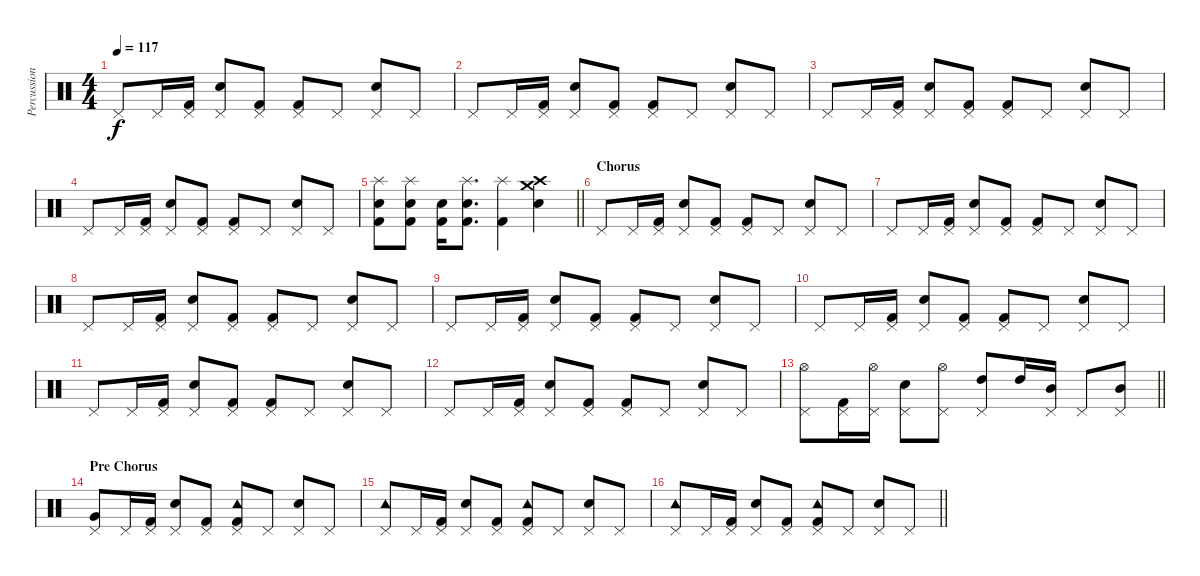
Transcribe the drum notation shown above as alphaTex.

\track ("Percussion" "Percussion") {instrument percussion}
\staff {score}
\articulation defaults
\ts (4 4)
\tempo 117
\clef neutral
\ks c "Pedal Hi-Hat (hit)".8{dy f} "Pedal Hi-Hat (hit)".16
("Pedal Hi-Hat (hit)" "Kick (hit) 2").16 ("Pedal Hi-Hat (hit)" "Electric Snare (hit)").8 ("Pedal Hi-Hat (hit)" "Kick (hit) 2").8 ("Pedal Hi-Hat (hit)" "Kick (hit) 2").8 "Pedal Hi-Hat (hit)".8 ("Pedal Hi-Hat (hit)" "Electric Snare (hit)").8 "Pedal Hi-Hat (hit)".8 |
"Pedal Hi-Hat (hit)".8 "Pedal Hi-Hat (hit)".16 ("Pedal Hi-Hat (hit)" "Kick (hit) 2").16 ("Pedal Hi-Hat (hit)" "Electric Snare (hit)").8 ("Pedal Hi-Hat (hit)" "Kick (hit) 2").8 ("Pedal Hi-Hat (hit)" "Kick (hit) 2").8 "Pedal Hi-Hat (hit)".8 ("Pedal Hi-Hat (hit)" "Electric Snare (hit)").8 "Pedal Hi-Hat (hit)".8 |
"Pedal Hi-Hat (hit)".8 "Pedal Hi-Hat (hit)".16 ("Pedal Hi-Hat (hit)" "Kick (hit) 2").16 ("Pedal Hi-Hat (hit)" "Electric Snare (hit)").8 ("Pedal Hi-Hat (hit)" "Kick (hit) 2").8 ("Pedal Hi-Hat (hit)" "Kick (hit) 2").8 "Pedal Hi-Hat (hit)".8 ("Pedal Hi-Hat (hit)" "Electric Snare (hit)").8 "Pedal Hi-Hat (hit)".8 |
"Pedal Hi-Hat (hit)".8 "Pedal Hi-Hat (hit)".16 ("Pedal Hi-Hat (hit)" "Kick (hit) 2").16 ("Pedal Hi-Hat (hit)" "Electric Snare (hit)").8 ("Pedal Hi-Hat (hit)" "Kick (hit) 2").8 ("Pedal Hi-Hat (hit)" "Kick (hit) 2").8 "Pedal Hi-Hat (hit)".8 ("Pedal Hi-Hat (hit)" "Electric Snare (hit)").8 "Pedal Hi-Hat (hit)".8 |
\barLineRight lightlight
("Splash (hit)" "Kick (hit) 2" "Electric Snare (hit)").8 ("Splash (hit)" "Kick (hit) 2" "Electric Snare (hit)").8 ("Kick (hit) 2" "Electric Snare (hit)").16 ("Splash (hit)" "Kick (hit) 2" "Electric Snare (hit)").8{d} ("Splash (hit)" "Kick (hit) 2").4 ("Crash high (hit)" "Electric Snare (hit)" "Crash medium (hit)").4 |
\section ("" "Chorus")
"Pedal Hi-Hat (hit)".8 "Pedal Hi-Hat (hit)".16 ("Pedal Hi-Hat (hit)" "Kick (hit) 2").16 ("Pedal Hi-Hat (hit)" "Electric Snare (hit)").8 ("Pedal Hi-Hat (hit)" "Kick (hit) 2").8 ("Pedal Hi-Hat (hit)" "Kick (hit) 2").8 "Pedal Hi-Hat (hit)".8 ("Pedal Hi-Hat (hit)" "Electric Snare (hit)").8 "Pedal Hi-Hat (hit)".8 |
"Pedal Hi-Hat (hit)".8 "Pedal Hi-Hat (hit)".16 ("Pedal Hi-Hat (hit)" "Kick (hit) 2").16 ("Pedal Hi-Hat (hit)" "Electric Snare (hit)").8 ("Pedal Hi-Hat (hit)" "Kick (hit) 2").8 ("Pedal Hi-Hat (hit)" "Kick (hit) 2").8 "Pedal Hi-Hat (hit)".8 ("Pedal Hi-Hat (hit)" "Electric Snare (hit)").8 "Pedal Hi-Hat (hit)".8 |
"Pedal Hi-Hat (hit)".8 "Pedal Hi-Hat (hit)".16 ("Pedal Hi-Hat (hit)" "Kick (hit) 2").16 ("Pedal Hi-Hat (hit)" "Electric Snare (hit)").8 ("Pedal Hi-Hat (hit)" "Kick (hit) 2").8 ("Pedal Hi-Hat (hit)" "Kick (hit) 2").8 "Pedal Hi-Hat (hit)".8 ("Pedal Hi-Hat (hit)" "Electric Snare (hit)").8 "Pedal Hi-Hat (hit)".8 |
"Pedal Hi-Hat (hit)".8 "Pedal Hi-Hat (hit)".16 ("Pedal Hi-Hat (hit)" "Kick (hit) 2").16 ("Pedal Hi-Hat (hit)" "Electric Snare (hit)").8 ("Pedal Hi-Hat (hit)" "Kick (hit) 2").8 ("Pedal Hi-Hat (hit)" "Kick (hit) 2").8 "Pedal Hi-Hat (hit)".8 ("Pedal Hi-Hat (hit)" "Electric Snare (hit)").8 "Pedal Hi-Hat (hit)".8 |
"Pedal Hi-Hat (hit)".8 "Pedal Hi-Hat (hit)".16 ("Pedal Hi-Hat (hit)" "Kick (hit) 2").16 ("Pedal Hi-Hat (hit)" "Electric Snare (hit)").8 ("Pedal Hi-Hat (hit)" "Kick (hit) 2").8 ("Pedal Hi-Hat (hit)" "Kick (hit) 2").8 "Pedal Hi-Hat (hit)".8 ("Pedal Hi-Hat (hit)" "Electric Snare (hit)").8 "Pedal Hi-Hat (hit)".8 |
"Pedal Hi-Hat (hit)".8 "Pedal Hi-Hat (hit)".16 ("Pedal Hi-Hat (hit)" "Kick (hit) 2").16 ("Pedal Hi-Hat (hit)" "Electric Snare (hit)").8 ("Pedal Hi-Hat (hit)" "Kick (hit) 2").8 ("Pedal Hi-Hat (hit)" "Kick (hit) 2").8 "Pedal Hi-Hat (hit)".8 ("Pedal Hi-Hat (hit)" "Electric Snare (hit)").8 "Pedal Hi-Hat (hit)".8 |
"Pedal Hi-Hat (hit)".8 "Pedal Hi-Hat (hit)".16 ("Pedal Hi-Hat (hit)" "Kick (hit) 2").16 ("Pedal Hi-Hat (hit)" "Electric Snare (hit)").8 ("Pedal Hi-Hat (hit)" "Kick (hit) 2").8 ("Pedal Hi-Hat (hit)" "Kick (hit) 2").8 "Pedal Hi-Hat (hit)".8 ("Pedal Hi-Hat (hit)" "Electric Snare (hit)").8 "Pedal Hi-Hat (hit)".8 |
\barLineRight lightlight
("Pedal Hi-Hat (hit)" "Hi-Hat (open)").8 ("Pedal Hi-Hat (hit)" "Kick (hit) 2").16 ("Pedal Hi-Hat (hit)" "Hi-Hat (open)").16 ("Pedal Hi-Hat (hit)" "Electric Snare (hit)").8 ("Pedal Hi-Hat (hit)" "Hi-Hat (open)").8 ("Pedal Hi-Hat (hit)" "High Tom (hit)").8 "High Tom (hit)".16 ("Pedal Hi-Hat (hit)" "Mid Tom (hit)").16 "Pedal Hi-Hat (hit)".8 ("Pedal Hi-Hat (hit)" "Mid Tom (hit)").8 |
\section ("" "Pre Chorus")
("Pedal Hi-Hat (hit)" "Very Low Tom (hit)").8 "Pedal Hi-Hat (hit)".16 ("Pedal Hi-Hat (hit)" "Kick (hit) 2").16 ("Pedal Hi-Hat (hit)" "Electric Snare (hit)").8 ("Pedal Hi-Hat (hit)" "Kick (hit) 2").8 ("Pedal Hi-Hat (hit)" "Kick (hit) 2" "Tambourine (hit)").8 "Pedal Hi-Hat (hit)".8 ("Pedal Hi-Hat (hit)" "Electric Snare (hit)").8 "Pedal Hi-Hat (hit)".8 |
("Pedal Hi-Hat (hit)" "Tambourine (hit)").8 "Pedal Hi-Hat (hit)".16 ("Pedal Hi-Hat (hit)" "Kick (hit) 2").16 ("Pedal Hi-Hat (hit)" "Electric Snare (hit)").8 ("Pedal Hi-Hat (hit)" "Kick (hit) 2").8 ("Pedal Hi-Hat (hit)" "Kick (hit) 2" "Tambourine (hit)").8 "Pedal Hi-Hat (hit)".8 ("Pedal Hi-Hat (hit)" "Electric Snare (hit)").8 "Pedal Hi-Hat (hit)".8 |
\barLineRight lightlight
("Pedal Hi-Hat (hit)" "Tambourine (hit)").8 "Pedal Hi-Hat (hit)".16 ("Pedal Hi-Hat (hit)" "Kick (hit) 2").16 ("Pedal Hi-Hat (hit)" "Electric Snare (hit)").8 ("Pedal Hi-Hat (hit)" "Kick (hit) 2").8 ("Pedal Hi-Hat (hit)" "Kick (hit) 2" "Tambourine (hit)").8 "Pedal Hi-Hat (hit)".8 ("Pedal Hi-Hat (hit)" "Electric Snare (hit)").8 "Pedal Hi-Hat (hit)".8
